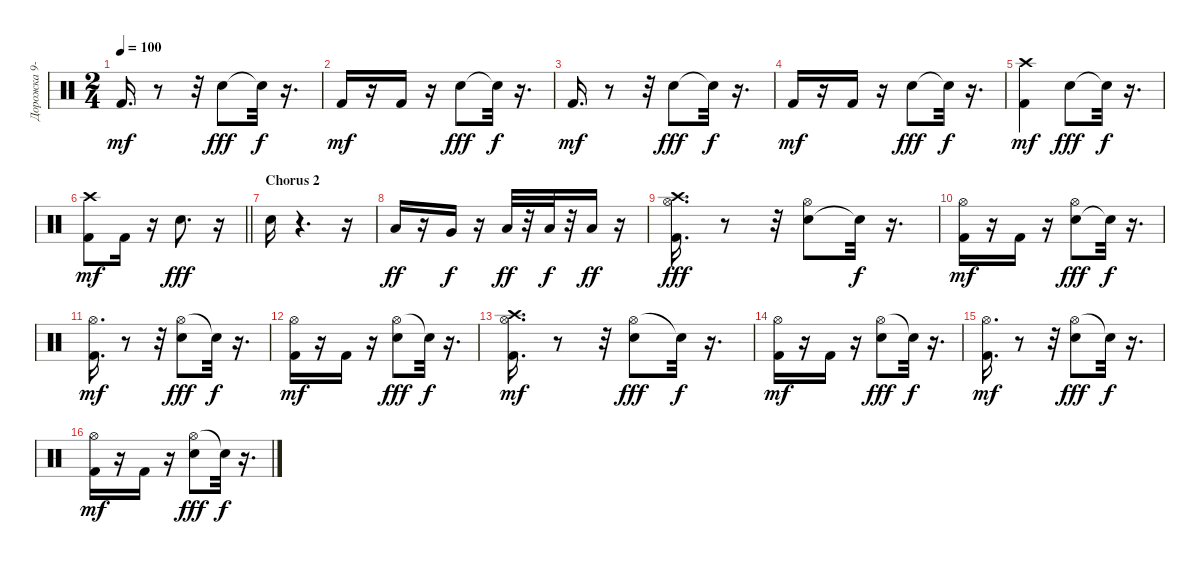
\track ("Дорожка 9-10" "Дорожка 9-") {instrument percussion}
\staff {score}
\articulation defaults
\ts (2 4)
\tempo 100
\clef neutral
\ks c "Kick (hit) 2".16{d dy mf}
r.8 r.32 "Snare (hit) 2".8{dy fff} "Snare (hit)"{t}.32{dy f} r.16{d} |
"Kick (hit) 2".16{dy mf} r.16 "Kick (hit) 2".16 r.16 "Snare (hit) 2".8{dy fff} "Snare (hit)"{t}.32{dy f} r.16{d} |
"Kick (hit) 2".16{d dy mf} r.8 r.32 "Snare (hit) 2".8{dy fff} "Snare (hit)"{t}.32{dy f} r.16{d} |
"Kick (hit) 2".16{dy mf} r.16 "Kick (hit) 2".16 r.16 "Snare (hit) 2".8{dy fff} "Snare (hit)"{t}.32{dy f} r.16{d} |
("Crash high (hit)" "Kick (hit) 2").4{dy mf} "Snare (hit) 2".8{dy fff} "Snare (hit)"{t}.32{dy f} r.16{d} |
\barLineRight lightlight
("Crash high (hit)" "Kick (hit) 2").8{dy mf} "Kick (hit) 2".16 r.16 "Snare (hit) 2".8{d dy fff} r.16 |
\section ("" "Chorus 2")
"Snare (hit) 2".16 r.4{d} r.16 |
"Low Floor Tom (hit)".16{dy ff} r.16 "Very Low Tom (hit)".16{dy f} r.16 "Low Tom (hit)".32{dy ff} r.32 "Low Tom (hit)".32{dy f} r.32 "Low Tom (hit)".16{dy ff} r.16 |
("Kick (hit) 2" "Hi-Hat (open)" "Crash high (hit)").16{d dy fff} r.8 r.32 ("Snare (hit) 2" "Hi-Hat (open)").8 "Snare (hit)"{t}.32{dy f} r.16{d} |
("Kick (hit) 2" "Hi-Hat (open)").16{dy mf} r.16 "Kick (hit) 2".16 r.16 ("Snare (hit) 2" "Hi-Hat (open)").8{dy fff} "Snare (hit)"{t}.32{dy f} r.16{d} |
("Hi-Hat (open)" "Kick (hit) 2").16{d dy mf} r.8 r.32 ("Hi-Hat (open)" "Snare (hit) 2").8{dy fff} "Snare (hit)"{t}.32{dy f} r.16{d} |
("Hi-Hat (open)" "Kick (hit) 2").16{dy mf} r.16 "Kick (hit) 2".16 r.16 ("Hi-Hat (open)" "Snare (hit) 2").8{dy fff} "Snare (hit)"{t}.32{dy f} r.16{d} |
("Hi-Hat (open)" "Crash high (hit)" "Kick (hit) 2").16{d dy mf} r.8 r.32 ("Hi-Hat (open)" "Snare (hit) 2").8{dy fff} "Snare (hit)"{t}.32{dy f} r.16{d} |
("Hi-Hat (open)" "Kick (hit) 2").16{dy mf} r.16 "Kick (hit) 2".16 r.16 ("Hi-Hat (open)" "Snare (hit) 2").8{dy fff} "Snare (hit)"{t}.32{dy f} r.16{d} |
("Hi-Hat (open)" "Kick (hit) 2").16{d dy mf} r.8 r.32 ("Hi-Hat (open)" "Snare (hit) 2").8{dy fff} "Snare (hit)"{t}.32{dy f} r.16{d} |
("Hi-Hat (open)" "Kick (hit) 2").16{dy mf} r.16 "Kick (hit) 2".16 r.16 ("Hi-Hat (open)" "Snare (hit) 2").8{dy fff} "Snare (hit)"{t}.32{dy f} r.16{d}
